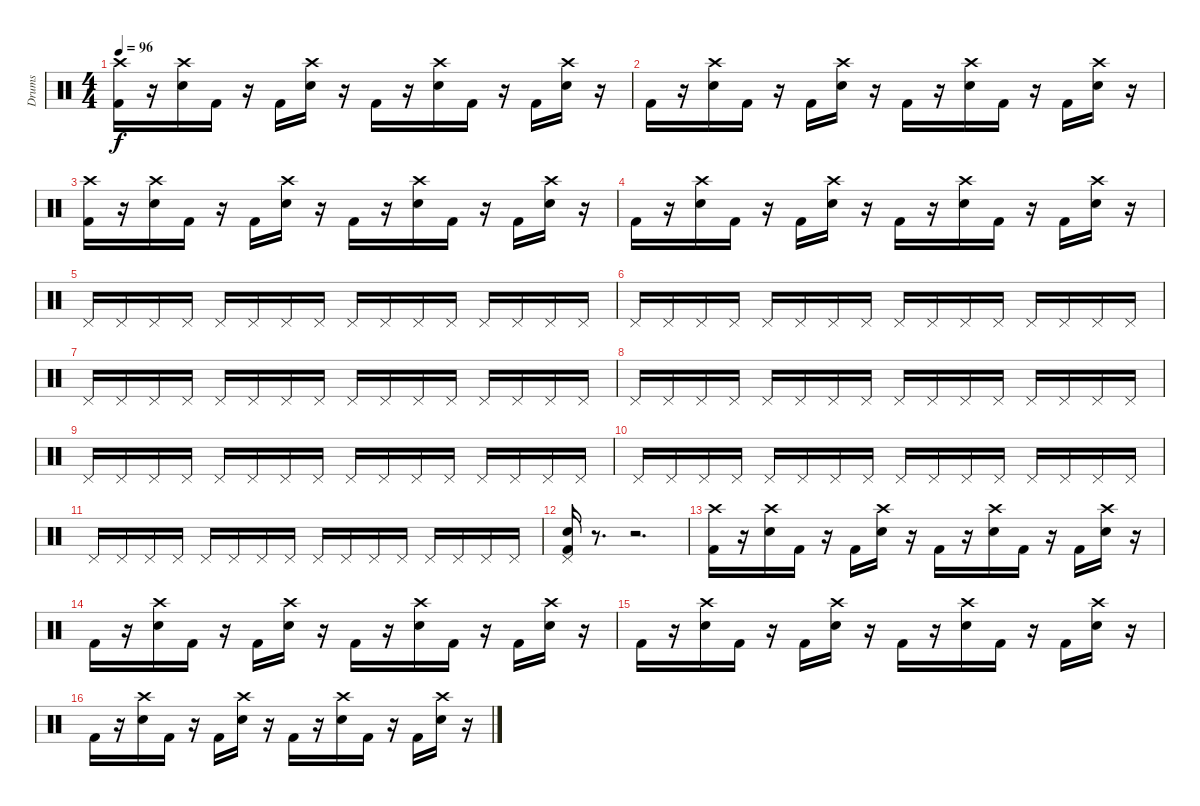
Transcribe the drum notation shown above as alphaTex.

\track ("Drums" "Drums") {instrument percussion}
\staff {score}
\articulation defaults
\ts (4 4)
\tempo 96
\clef neutral
\ks c
("Crash high (hit)" "Kick (hit) 2").16{dy f} r.16 ("Crash high (hit)" "Electric Snare (hit)").16 "Kick (hit) 2".16 r.16 "Kick (hit) 2".16 ("Crash high (hit)" "Electric Snare (hit)").16 r.16 "Kick (hit) 2".16 r.16 ("Crash high (hit)" "Electric Snare (hit)").16 "Kick (hit) 2".16 r.16 "Kick (hit) 2".16 ("Crash high (hit)" "Electric Snare (hit)").16 r.16 |
"Kick (hit) 2".16 r.16 ("Crash high (hit)" "Electric Snare (hit)").16 "Kick (hit) 2".16 r.16 "Kick (hit) 2".16 ("Crash high (hit)" "Electric Snare (hit)").16 r.16 "Kick (hit) 2".16 r.16 ("Crash high (hit)" "Electric Snare (hit)").16 "Kick (hit) 2".16 r.16 "Kick (hit) 2".16 ("Crash high (hit)" "Electric Snare (hit)").16 r.16 |
("Crash high (hit)" "Kick (hit) 2").16 r.16 ("Crash high (hit)" "Electric Snare (hit)").16 "Kick (hit) 2".16 r.16 "Kick (hit) 2".16 ("Crash high (hit)" "Electric Snare (hit)").16 r.16 "Kick (hit) 2".16 r.16 ("Crash high (hit)" "Electric Snare (hit)").16 "Kick (hit) 2".16 r.16 "Kick (hit) 2".16 ("Crash high (hit)" "Electric Snare (hit)").16 r.16 |
"Kick (hit) 2".16 r.16 ("Crash high (hit)" "Electric Snare (hit)").16 "Kick (hit) 2".16 r.16 "Kick (hit) 2".16 ("Crash high (hit)" "Electric Snare (hit)").16 r.16 "Kick (hit) 2".16 r.16 ("Crash high (hit)" "Electric Snare (hit)").16 "Kick (hit) 2".16 r.16 "Kick (hit) 2".16 ("Crash high (hit)" "Electric Snare (hit)").16 r.16 |
"Pedal Hi-Hat (hit)".16 "Pedal Hi-Hat (hit)".16 "Pedal Hi-Hat (hit)".16 "Pedal Hi-Hat (hit)".16 "Pedal Hi-Hat (hit)".16 "Pedal Hi-Hat (hit)".16 "Pedal Hi-Hat (hit)".16 "Pedal Hi-Hat (hit)".16 "Pedal Hi-Hat (hit)".16 "Pedal Hi-Hat (hit)".16 "Pedal Hi-Hat (hit)".16 "Pedal Hi-Hat (hit)".16 "Pedal Hi-Hat (hit)".16 "Pedal Hi-Hat (hit)".16 "Pedal Hi-Hat (hit)".16 "Pedal Hi-Hat (hit)".16 |
"Pedal Hi-Hat (hit)".16 "Pedal Hi-Hat (hit)".16 "Pedal Hi-Hat (hit)".16 "Pedal Hi-Hat (hit)".16 "Pedal Hi-Hat (hit)".16 "Pedal Hi-Hat (hit)".16 "Pedal Hi-Hat (hit)".16 "Pedal Hi-Hat (hit)".16 "Pedal Hi-Hat (hit)".16 "Pedal Hi-Hat (hit)".16 "Pedal Hi-Hat (hit)".16 "Pedal Hi-Hat (hit)".16 "Pedal Hi-Hat (hit)".16 "Pedal Hi-Hat (hit)".16 "Pedal Hi-Hat (hit)".16 "Pedal Hi-Hat (hit)".16 |
"Pedal Hi-Hat (hit)".16 "Pedal Hi-Hat (hit)".16 "Pedal Hi-Hat (hit)".16 "Pedal Hi-Hat (hit)".16 "Pedal Hi-Hat (hit)".16 "Pedal Hi-Hat (hit)".16 "Pedal Hi-Hat (hit)".16 "Pedal Hi-Hat (hit)".16 "Pedal Hi-Hat (hit)".16 "Pedal Hi-Hat (hit)".16 "Pedal Hi-Hat (hit)".16 "Pedal Hi-Hat (hit)".16 "Pedal Hi-Hat (hit)".16 "Pedal Hi-Hat (hit)".16 "Pedal Hi-Hat (hit)".16 "Pedal Hi-Hat (hit)".16 |
"Pedal Hi-Hat (hit)".16 "Pedal Hi-Hat (hit)".16 "Pedal Hi-Hat (hit)".16 "Pedal Hi-Hat (hit)".16 "Pedal Hi-Hat (hit)".16 "Pedal Hi-Hat (hit)".16 "Pedal Hi-Hat (hit)".16 "Pedal Hi-Hat (hit)".16 "Pedal Hi-Hat (hit)".16 "Pedal Hi-Hat (hit)".16 "Pedal Hi-Hat (hit)".16 "Pedal Hi-Hat (hit)".16 "Pedal Hi-Hat (hit)".16 "Pedal Hi-Hat (hit)".16 "Pedal Hi-Hat (hit)".16 "Pedal Hi-Hat (hit)".16 |
"Pedal Hi-Hat (hit)".16 "Pedal Hi-Hat (hit)".16 "Pedal Hi-Hat (hit)".16 "Pedal Hi-Hat (hit)".16 "Pedal Hi-Hat (hit)".16 "Pedal Hi-Hat (hit)".16 "Pedal Hi-Hat (hit)".16 "Pedal Hi-Hat (hit)".16 "Pedal Hi-Hat (hit)".16 "Pedal Hi-Hat (hit)".16 "Pedal Hi-Hat (hit)".16 "Pedal Hi-Hat (hit)".16 "Pedal Hi-Hat (hit)".16 "Pedal Hi-Hat (hit)".16 "Pedal Hi-Hat (hit)".16 "Pedal Hi-Hat (hit)".16 |
"Pedal Hi-Hat (hit)".16 "Pedal Hi-Hat (hit)".16 "Pedal Hi-Hat (hit)".16 "Pedal Hi-Hat (hit)".16 "Pedal Hi-Hat (hit)".16 "Pedal Hi-Hat (hit)".16 "Pedal Hi-Hat (hit)".16 "Pedal Hi-Hat (hit)".16 "Pedal Hi-Hat (hit)".16 "Pedal Hi-Hat (hit)".16 "Pedal Hi-Hat (hit)".16 "Pedal Hi-Hat (hit)".16 "Pedal Hi-Hat (hit)".16 "Pedal Hi-Hat (hit)".16 "Pedal Hi-Hat (hit)".16 "Pedal Hi-Hat (hit)".16 |
"Pedal Hi-Hat (hit)".16 "Pedal Hi-Hat (hit)".16 "Pedal Hi-Hat (hit)".16 "Pedal Hi-Hat (hit)".16 "Pedal Hi-Hat (hit)".16 "Pedal Hi-Hat (hit)".16 "Pedal Hi-Hat (hit)".16 "Pedal Hi-Hat (hit)".16 "Pedal Hi-Hat (hit)".16 "Pedal Hi-Hat (hit)".16 "Pedal Hi-Hat (hit)".16 "Pedal Hi-Hat (hit)".16 "Pedal Hi-Hat (hit)".16 "Pedal Hi-Hat (hit)".16 "Pedal Hi-Hat (hit)".16 "Pedal Hi-Hat (hit)".16 |
("Pedal Hi-Hat (hit)" "Electric Snare (hit)" "Kick (hit) 2").16 r.8{d} r.2{d} |
("Crash high (hit)" "Kick (hit) 2").16 r.16 ("Crash high (hit)" "Electric Snare (hit)").16 "Kick (hit) 2".16 r.16 "Kick (hit) 2".16 ("Crash high (hit)" "Electric Snare (hit)").16 r.16 "Kick (hit) 2".16 r.16 ("Crash high (hit)" "Electric Snare (hit)").16 "Kick (hit) 2".16 r.16 "Kick (hit) 2".16 ("Crash high (hit)" "Electric Snare (hit)").16 r.16 |
"Kick (hit) 2".16 r.16 ("Crash high (hit)" "Electric Snare (hit)").16 "Kick (hit) 2".16 r.16 "Kick (hit) 2".16 ("Crash high (hit)" "Electric Snare (hit)").16 r.16 "Kick (hit) 2".16 r.16 ("Crash high (hit)" "Electric Snare (hit)").16 "Kick (hit) 2".16 r.16 "Kick (hit) 2".16 ("Crash high (hit)" "Electric Snare (hit)").16 r.16 |
"Kick (hit) 2".16 r.16 ("Crash high (hit)" "Electric Snare (hit)").16 "Kick (hit) 2".16 r.16 "Kick (hit) 2".16 ("Crash high (hit)" "Electric Snare (hit)").16 r.16 "Kick (hit) 2".16 r.16 ("Crash high (hit)" "Electric Snare (hit)").16 "Kick (hit) 2".16 r.16 "Kick (hit) 2".16 ("Crash high (hit)" "Electric Snare (hit)").16 r.16 |
"Kick (hit) 2".16 r.16 ("Crash high (hit)" "Electric Snare (hit)").16 "Kick (hit) 2".16 r.16 "Kick (hit) 2".16 ("Crash high (hit)" "Electric Snare (hit)").16 r.16 "Kick (hit) 2".16 r.16 ("Crash high (hit)" "Electric Snare (hit)").16 "Kick (hit) 2".16 r.16 "Kick (hit) 2".16 ("Crash high (hit)" "Electric Snare (hit)").16 r.16
